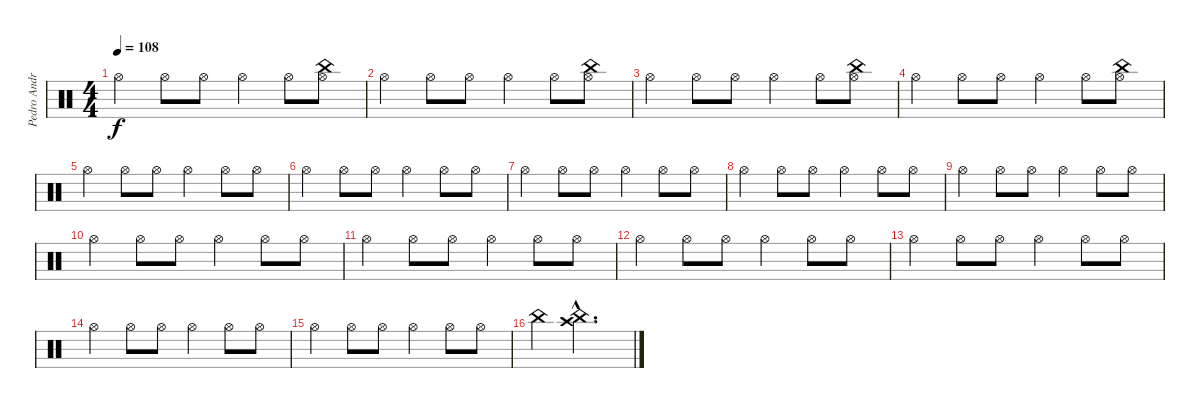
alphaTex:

\track ("Pedro Andreu" "Pedro Andr") {instrument percussion}
\staff {score}
\articulation defaults
\ts (4 4)
\tempo 108
\clef neutral
\ks c "Hi-Hat (open)".4{dy f} "Hi-Hat (open)".8 "Hi-Hat (open)".8 "Hi-Hat (open)".4 "Hi-Hat (open)".8
("Hi-Hat (open)" "China (hit)").8 |
"Hi-Hat (open)".4 "Hi-Hat (open)".8 "Hi-Hat (open)".8 "Hi-Hat (open)".4 "Hi-Hat (open)".8 ("Hi-Hat (open)" "China (hit)").8 |
"Hi-Hat (open)".4 "Hi-Hat (open)".8 "Hi-Hat (open)".8 "Hi-Hat (open)".4 "Hi-Hat (open)".8 ("Hi-Hat (open)" "China (hit)").8 |
"Hi-Hat (open)".4 "Hi-Hat (open)".8 "Hi-Hat (open)".8 "Hi-Hat (open)".4 "Hi-Hat (open)".8 ("Hi-Hat (open)" "China (hit)").8 |
"Hi-Hat (open)".4 "Hi-Hat (open)".8 "Hi-Hat (open)".8 "Hi-Hat (open)".4 "Hi-Hat (open)".8 "Hi-Hat (open)".8 |
"Hi-Hat (open)".4 "Hi-Hat (open)".8 "Hi-Hat (open)".8 "Hi-Hat (open)".4 "Hi-Hat (open)".8 "Hi-Hat (open)".8 |
"Hi-Hat (open)".4 "Hi-Hat (open)".8 "Hi-Hat (open)".8 "Hi-Hat (open)".4 "Hi-Hat (open)".8 "Hi-Hat (open)".8 |
"Hi-Hat (open)".4 "Hi-Hat (open)".8 "Hi-Hat (open)".8 "Hi-Hat (open)".4 "Hi-Hat (open)".8 "Hi-Hat (open)".8 |
"Hi-Hat (open)".4 "Hi-Hat (open)".8 "Hi-Hat (open)".8 "Hi-Hat (open)".4 "Hi-Hat (open)".8 "Hi-Hat (open)".8 |
"Hi-Hat (open)".4 "Hi-Hat (open)".8 "Hi-Hat (open)".8 "Hi-Hat (open)".4 "Hi-Hat (open)".8 "Hi-Hat (open)".8 |
"Hi-Hat (open)".4 "Hi-Hat (open)".8 "Hi-Hat (open)".8 "Hi-Hat (open)".4 "Hi-Hat (open)".8 "Hi-Hat (open)".8 |
"Hi-Hat (open)".4 "Hi-Hat (open)".8 "Hi-Hat (open)".8 "Hi-Hat (open)".4 "Hi-Hat (open)".8 "Hi-Hat (open)".8 |
"Hi-Hat (open)".4 "Hi-Hat (open)".8 "Hi-Hat (open)".8 "Hi-Hat (open)".4 "Hi-Hat (open)".8 "Hi-Hat (open)".8 |
"Hi-Hat (open)".4 "Hi-Hat (open)".8 "Hi-Hat (open)".8 "Hi-Hat (open)".4 "Hi-Hat (open)".8 "Hi-Hat (open)".8 |
"Hi-Hat (open)".4 "Hi-Hat (open)".8 "Hi-Hat (open)".8 "Hi-Hat (open)".4 "Hi-Hat (open)".8 "Hi-Hat (open)".8 |
"China (hit)".4 ("Crash high (hit)"{hac} "China (hit)"{hac}).2{d}
